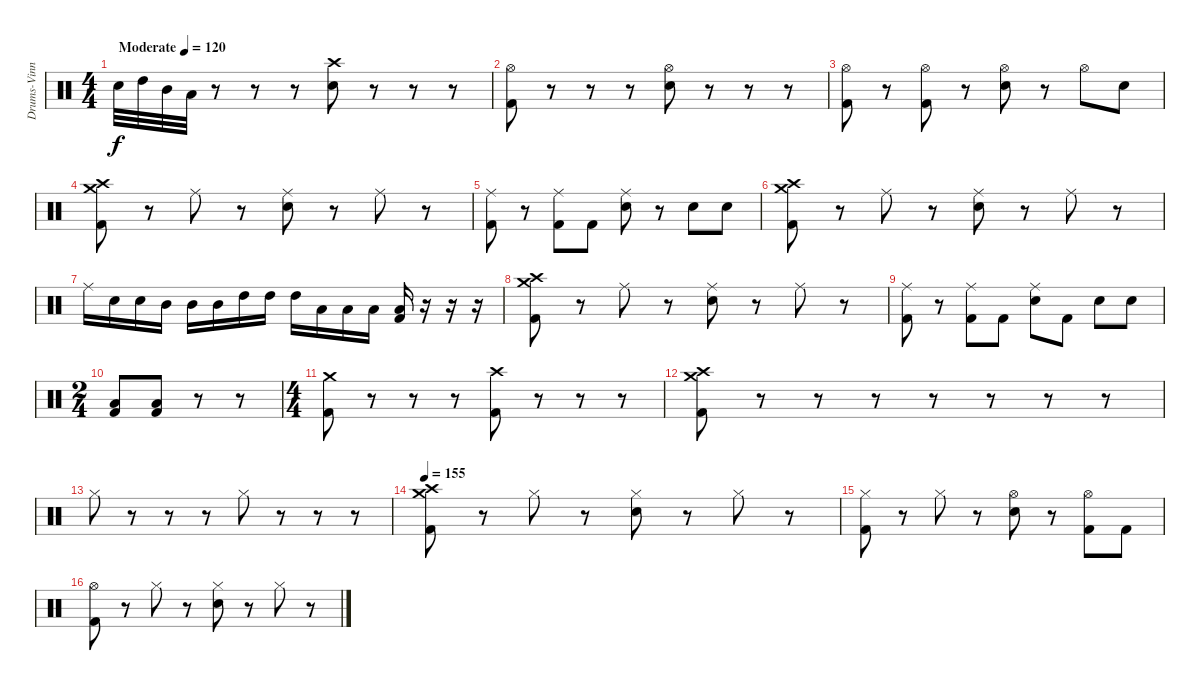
\track ("Drums-Vinny Appice" "Drums-Vinn") {instrument percussion}
\staff {score}
\articulation defaults
\ts (4 4)
\tempo (120 "Moderate")
\clef neutral
\ks c "Electric Snare (hit)".32{dy f} "High Tom (hit)".32 "Mid Tom (hit)".32 "Low Floor Tom (hit)".32
r.8 r.8 r.8 ("Crash high (hit)" "Electric Snare (hit)").8 r.8 r.8 r.8 |
("Hi-Hat (open)" "Kick (hit) 2").8 r.8 r.8 r.8 ("Hi-Hat (open)" "Electric Snare (hit)").8 r.8 r.8 r.8 |
("Hi-Hat (open)" "Kick (hit) 2").8 r.8 ("Hi-Hat (open)" "Kick (hit) 2").8 r.8 ("Hi-Hat (open)" "Electric Snare (hit)").8 r.8 "Hi-Hat (open)".8 "Electric Snare (hit)".8 |
("Crash medium (hit)" "Crash high (hit)" "Kick (hit) 2").8 r.8 "Ride (middle)".8 r.8 ("Ride (middle)" "Electric Snare (hit)").8 r.8 "Ride (middle)".8 r.8 |
("Ride (middle)" "Kick (hit) 2").8 r.8 ("Ride (middle)" "Kick (hit) 2").8 "Kick (hit) 2".8 ("Ride (middle)" "Electric Snare (hit)").8 r.8 "Electric Snare (hit)".8 "Electric Snare (hit)".8 |
("Crash medium (hit)" "Crash high (hit)" "Kick (hit) 2").8 r.8 "Ride (middle)".8 r.8 ("Ride (middle)" "Electric Snare (hit)").8 r.8 "Ride (middle)".8 r.8 |
"Ride (middle)".16 "Electric Snare (hit)".16 "Electric Snare (hit)".16 "Mid Tom (hit)".16 "Mid Tom (hit)".16 "Mid Tom (hit)".16 "High Tom (hit)".16 "High Tom (hit)".16 "High Tom (hit)".16 "Low Floor Tom (hit)".16 "Low Floor Tom (hit)".16 "Low Floor Tom (hit)".16 ("Low Floor Tom (hit)" "Kick (hit) 2").16 r.16 r.16 r.16 |
("Crash medium (hit)" "Crash high (hit)" "Kick (hit) 2").8 r.8 "Ride (middle)".8 r.8 ("Ride (middle)" "Electric Snare (hit)").8 r.8 "Ride (middle)".8 r.8 |
("Ride (middle)" "Kick (hit) 2").8 r.8 ("Ride (middle)" "Kick (hit) 2").8 "Kick (hit) 2".8 ("Ride (middle)" "Electric Snare (hit)").8 "Kick (hit) 2".8 "Electric Snare (hit)".8 "Electric Snare (hit)".8 |
\ts (2 4)
("Low Floor Tom (hit)" "Kick (hit) 2").8 ("Low Floor Tom (hit)" "Kick (hit) 2").8 r.8 r.8 |
\ts (4 4)
("Crash medium (hit)" "Kick (hit) 2").8 r.8 r.8 r.8 ("Crash high (hit)" "Kick (hit) 2").8 r.8 r.8 r.8 |
("Crash medium (hit)" "Crash high (hit)" "Kick (hit) 2").8 r.8 r.8 r.8 r.8 r.8 r.8 r.8 |
"Hi-Hat (closed)".8 r.8 r.8 r.8 "Hi-Hat (closed)".8 r.8 r.8 r.8 |
\tempo 155
("Crash medium (hit)" "Crash high (hit)" "Kick (hit) 2").8 r.8 "Hi-Hat (closed)".8 r.8 ("Hi-Hat (closed)" "Electric Snare (hit)").8 r.8 "Hi-Hat (closed)".8 r.8 |
("Hi-Hat (closed)" "Kick (hit) 2").8 r.8 "Hi-Hat (closed)".8 r.8 ("Hi-Hat (open)" "Electric Snare (hit)").8 r.8 ("Hi-Hat (open)" "Kick (hit) 2").8 "Kick (hit) 2".8 |
("Hi-Hat (open)" "Kick (hit) 2").8 r.8 "Hi-Hat (closed)".8 r.8 ("Hi-Hat (closed)" "Electric Snare (hit)").8 r.8 "Hi-Hat (closed)".8 r.8
